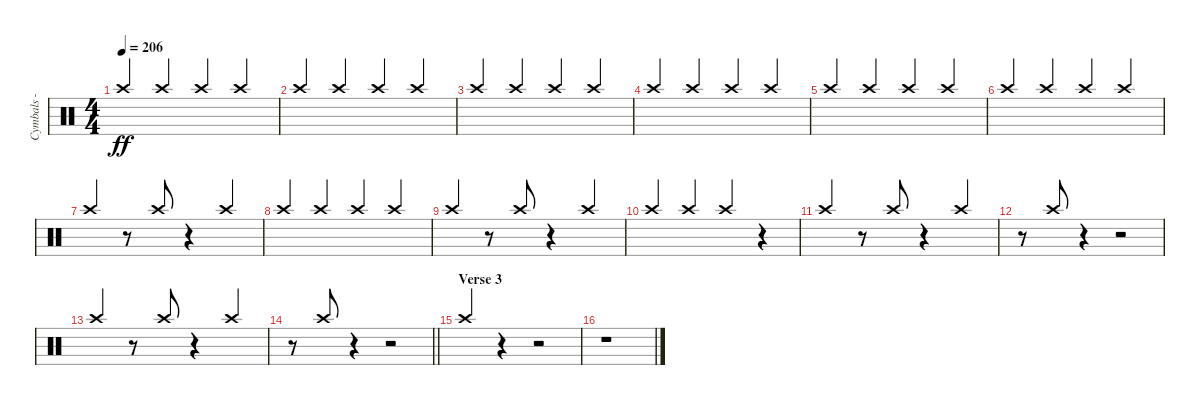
\track ("Cymbals - crash" "Cymbals - ") {instrument percussion}
\staff {score}
\articulation defaults
\ts (4 4)
\tempo 206
\clef neutral
\ks c "Crash high (hit)".4{dy ff beam Up} "Crash high (hit)".4{beam Up} "Crash high (hit)".4{beam Up} "Crash high (hit)".4{beam Up}
|
"Crash high (hit)".4{beam Up} "Crash high (hit)".4{beam Up} "Crash high (hit)".4{beam Up} "Crash high (hit)".4{beam Up} |
"Crash high (hit)".4{beam Up} "Crash high (hit)".4{beam Up} "Crash high (hit)".4{beam Up} "Crash high (hit)".4{beam Up} |
"Crash high (hit)".4{beam Up} "Crash high (hit)".4{beam Up} "Crash high (hit)".4{beam Up} "Crash high (hit)".4{beam Up} |
"Crash high (hit)".4{beam Up} "Crash high (hit)".4{beam Up} "Crash high (hit)".4{beam Up} "Crash high (hit)".4{beam Up} |
"Crash high (hit)".4{beam Up} "Crash high (hit)".4{beam Up} "Crash high (hit)".4{beam Up} "Crash high (hit)".4{beam Up} |
"Crash high (hit)".4{beam Up} r.8 "Crash high (hit)".8{beam Up} r.4 "Crash high (hit)".4{beam Up} |
"Crash high (hit)".4{beam Up} "Crash high (hit)".4{beam Up} "Crash high (hit)".4{beam Up} "Crash high (hit)".4{beam Up} |
"Crash high (hit)".4{beam Up} r.8 "Crash high (hit)".8{beam Up} r.4 "Crash high (hit)".4{beam Up} |
"Crash high (hit)".4{beam Up} "Crash high (hit)".4{beam Up} "Crash high (hit)".4{beam Up} r.4 |
"Crash high (hit)".4{beam Up} r.8 "Crash high (hit)".8{beam Up} r.4 "Crash high (hit)".4{beam Up} |
r.8 "Crash high (hit)".8{beam Up} r.4 r.2 |
"Crash high (hit)".4{beam Up} r.8 "Crash high (hit)".8{beam Up} r.4 "Crash high (hit)".4{beam Up} |
\barLineRight lightlight
r.8 "Crash high (hit)".8{beam Up} r.4 r.2 |
\section ("" "Verse 3")
"Crash high (hit)".4{beam Up} r.4 r.2 |
r.1
